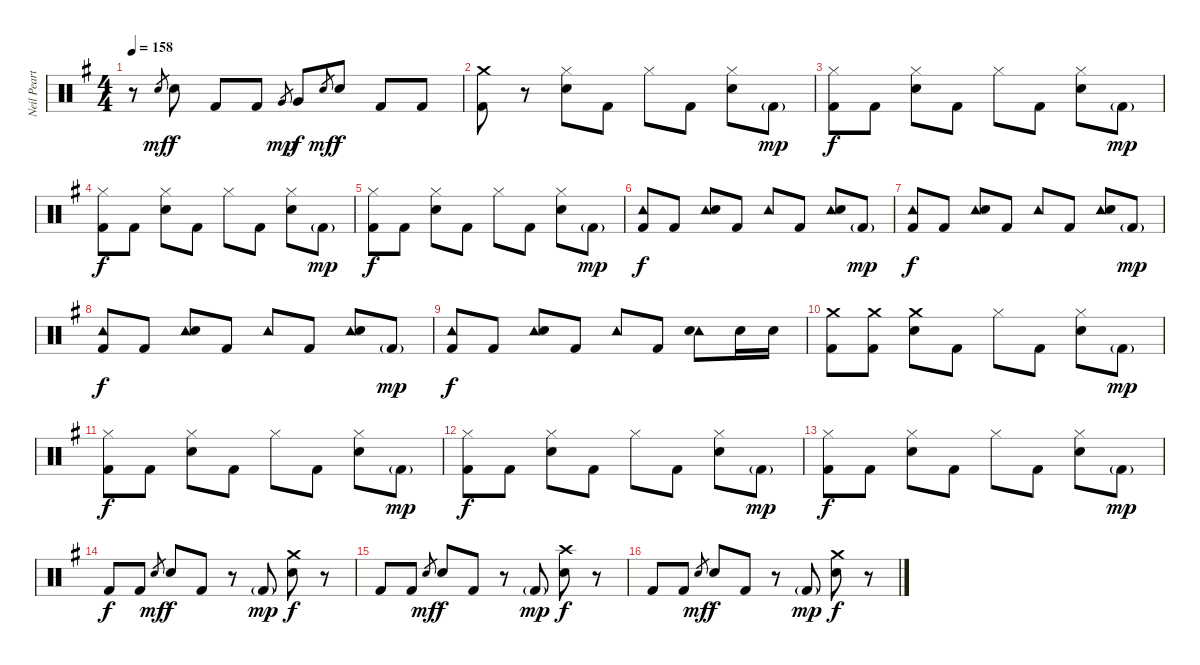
\track ("Neil Peart (drums)" "Neil Peart") {instrument percussion}
\staff {score}
\articulation defaults
\ts (4 4)
\tempo 158
\clef neutral
\ks eminor
r.8{dy mp} "Electric Snare (hit)".8{gr dy mf} "Electric Snare (hit)".8{dy f} "Kick (hit) 2".8 "Kick (hit) 2".8 "Very Low Tom (hit)".8{gr dy mp} "Very Low Tom (hit)".8{dy f} "Electric Snare (hit)".8{gr dy mf} "Electric Snare (hit)".8{dy f} "Kick (hit) 2".8 "Kick (hit) 2".8 |
("Crash medium (hit)" "Kick (hit) 2").8 r.8 ("Hi-Hat (closed)" "Electric Snare (hit)").8 "Kick (hit) 2".8 "Hi-Hat (closed)".8 "Kick (hit) 2".8 ("Hi-Hat (closed)" "Electric Snare (hit)").8 "Kick (hit) 2"{g}.8{dy mp} |
("Hi-Hat (closed)" "Kick (hit) 2").8{dy f} "Kick (hit) 2".8 ("Hi-Hat (closed)" "Electric Snare (hit)").8 "Kick (hit) 2".8 "Hi-Hat (closed)".8 "Kick (hit) 2".8 ("Hi-Hat (closed)" "Electric Snare (hit)").8 "Kick (hit) 2"{g}.8{dy mp} |
("Hi-Hat (closed)" "Kick (hit) 2").8{dy f} "Kick (hit) 2".8 ("Hi-Hat (closed)" "Electric Snare (hit)").8 "Kick (hit) 2".8 "Hi-Hat (closed)".8 "Kick (hit) 2".8 ("Hi-Hat (closed)" "Electric Snare (hit)").8 "Kick (hit) 2"{g}.8{dy mp} |
("Hi-Hat (closed)" "Kick (hit) 2").8{dy f} "Kick (hit) 2".8 ("Hi-Hat (closed)" "Electric Snare (hit)").8 "Kick (hit) 2".8 "Hi-Hat (closed)".8 "Kick (hit) 2".8 ("Hi-Hat (closed)" "Electric Snare (hit)").8 "Kick (hit) 2"{g}.8{dy mp} |
("Tambourine (hit)" "Kick (hit) 2").8{dy f} "Kick (hit) 2".8 ("Tambourine (hit)" "Electric Snare (hit)").8 "Kick (hit) 2".8 "Tambourine (hit)".8 "Kick (hit) 2".8 ("Tambourine (hit)" "Electric Snare (hit)").8 "Kick (hit) 2"{g}.8{dy mp} |
("Tambourine (hit)" "Kick (hit) 2").8{dy f} "Kick (hit) 2".8 ("Tambourine (hit)" "Electric Snare (hit)").8 "Kick (hit) 2".8 "Tambourine (hit)".8 "Kick (hit) 2".8 ("Tambourine (hit)" "Electric Snare (hit)").8 "Kick (hit) 2"{g}.8{dy mp} |
("Tambourine (hit)" "Kick (hit) 2").8{dy f} "Kick (hit) 2".8 ("Tambourine (hit)" "Electric Snare (hit)").8 "Kick (hit) 2".8 "Tambourine (hit)".8 "Kick (hit) 2".8 ("Tambourine (hit)" "Electric Snare (hit)").8 "Kick (hit) 2"{g}.8{dy mp} |
("Tambourine (hit)" "Kick (hit) 2").8{dy f} "Kick (hit) 2".8 ("Tambourine (hit)" "Electric Snare (hit)").8 "Kick (hit) 2".8 "Tambourine (hit)".8 "Kick (hit) 2".8 ("Tambourine (hit)" "Electric Snare (hit)").8 "Electric Snare (hit)".16 "Electric Snare (hit)".16 |
("Crash medium (hit)" "Kick (hit) 2").8 ("Crash medium (hit)" "Kick (hit) 2").8 ("Crash medium (hit)" "Electric Snare (hit)").8 "Kick (hit) 2".8 "Hi-Hat (closed)".8 "Kick (hit) 2".8 ("Hi-Hat (closed)" "Electric Snare (hit)").8 "Kick (hit) 2"{g}.8{dy mp} |
("Hi-Hat (closed)" "Kick (hit) 2").8{dy f} "Kick (hit) 2".8 ("Hi-Hat (closed)" "Electric Snare (hit)").8 "Kick (hit) 2".8 "Hi-Hat (closed)".8 "Kick (hit) 2".8 ("Hi-Hat (closed)" "Electric Snare (hit)").8 "Kick (hit) 2"{g}.8{dy mp} |
("Hi-Hat (closed)" "Kick (hit) 2").8{dy f} "Kick (hit) 2".8 ("Hi-Hat (closed)" "Electric Snare (hit)").8 "Kick (hit) 2".8 "Hi-Hat (closed)".8 "Kick (hit) 2".8 ("Hi-Hat (closed)" "Electric Snare (hit)").8 "Kick (hit) 2"{g}.8{dy mp} |
("Hi-Hat (closed)" "Kick (hit) 2").8{dy f} "Kick (hit) 2".8 ("Hi-Hat (closed)" "Electric Snare (hit)").8 "Kick (hit) 2".8 "Hi-Hat (closed)".8 "Kick (hit) 2".8 ("Hi-Hat (closed)" "Electric Snare (hit)").8 "Kick (hit) 2"{g}.8{dy mp} |
"Kick (hit) 2".8{dy f} "Kick (hit) 2".8 "Electric Snare (hit)".8{gr dy mf} "Electric Snare (hit)".8{dy f} "Kick (hit) 2".8 r.8 "Kick (hit) 2"{g}.8{dy mp} ("Crash medium (hit)" "Electric Snare (hit)").8{dy f} r.8 |
"Kick (hit) 2".8 "Kick (hit) 2".8 "Electric Snare (hit)".8{gr dy mf} "Electric Snare (hit)".8{dy f} "Kick (hit) 2".8 r.8 "Kick (hit) 2"{g}.8{dy mp} ("Crash high (hit)" "Electric Snare (hit)").8{dy f} r.8 |
"Kick (hit) 2".8 "Kick (hit) 2".8 "Electric Snare (hit)".8{gr dy mf} "Electric Snare (hit)".8{dy f} "Kick (hit) 2".8 r.8 "Kick (hit) 2"{g}.8{dy mp} ("Crash medium (hit)" "Electric Snare (hit)").8{dy f} r.8
